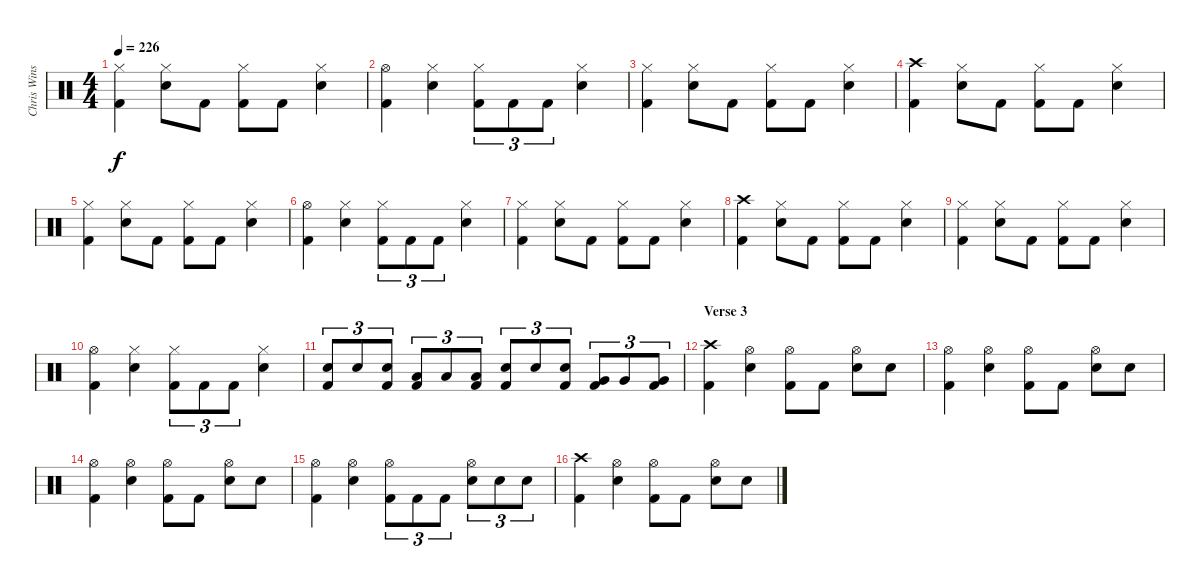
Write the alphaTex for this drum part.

\track ("Chris Winship (Drums)" "Chris Wins") {instrument percussion}
\staff {score}
\articulation defaults
\ts (4 4)
\tempo 226
\clef neutral
\ks c
("Hi-Hat (closed)" "Kick (hit) 2").4{dy f} ("Hi-Hat (closed)" "Electric Snare (hit)").8 "Kick (hit) 2".8 ("Hi-Hat (closed)" "Kick (hit) 2").8 "Kick (hit) 2".8 ("Hi-Hat (closed)" "Electric Snare (hit)").4 |
("Hi-Hat (open)" "Kick (hit) 2").4 ("Hi-Hat (closed)" "Electric Snare (hit)").4 ("Hi-Hat (closed)" "Kick (hit) 2").8{tu (3 2)} "Kick (hit) 2".8{tu (3 2)} "Kick (hit) 2".8{tu (3 2)} ("Hi-Hat (closed)" "Electric Snare (hit)").4 |
("Hi-Hat (closed)" "Kick (hit) 2").4 ("Hi-Hat (closed)" "Electric Snare (hit)").8 "Kick (hit) 2".8 ("Hi-Hat (closed)" "Kick (hit) 2").8 "Kick (hit) 2".8 ("Hi-Hat (closed)" "Electric Snare (hit)").4 |
("Crash high (hit)" "Kick (hit) 2").4 ("Hi-Hat (closed)" "Electric Snare (hit)").8 "Kick (hit) 2".8 ("Hi-Hat (closed)" "Kick (hit) 2").8 "Kick (hit) 2".8 ("Hi-Hat (closed)" "Electric Snare (hit)").4 |
("Hi-Hat (closed)" "Kick (hit) 2").4 ("Hi-Hat (closed)" "Electric Snare (hit)").8 "Kick (hit) 2".8 ("Hi-Hat (closed)" "Kick (hit) 2").8 "Kick (hit) 2".8 ("Hi-Hat (closed)" "Electric Snare (hit)").4 |
("Hi-Hat (open)" "Kick (hit) 2").4 ("Hi-Hat (closed)" "Electric Snare (hit)").4 ("Hi-Hat (closed)" "Kick (hit) 2").8{tu (3 2)} "Kick (hit) 2".8{tu (3 2)} "Kick (hit) 2".8{tu (3 2)} ("Hi-Hat (closed)" "Electric Snare (hit)").4 |
("Hi-Hat (closed)" "Kick (hit) 2").4 ("Hi-Hat (closed)" "Electric Snare (hit)").8 "Kick (hit) 2".8 ("Hi-Hat (closed)" "Kick (hit) 2").8 "Kick (hit) 2".8 ("Hi-Hat (closed)" "Electric Snare (hit)").4 |
("Crash high (hit)" "Kick (hit) 2").4 ("Hi-Hat (closed)" "Electric Snare (hit)").8 "Kick (hit) 2".8 ("Hi-Hat (closed)" "Kick (hit) 2").8 "Kick (hit) 2".8 ("Hi-Hat (closed)" "Electric Snare (hit)").4 |
("Hi-Hat (closed)" "Kick (hit) 2").4 ("Hi-Hat (closed)" "Electric Snare (hit)").8 "Kick (hit) 2".8 ("Hi-Hat (closed)" "Kick (hit) 2").8 "Kick (hit) 2".8 ("Hi-Hat (closed)" "Electric Snare (hit)").4 |
("Hi-Hat (open)" "Kick (hit) 2").4 ("Hi-Hat (closed)" "Electric Snare (hit)").4 ("Hi-Hat (closed)" "Kick (hit) 2").8{tu (3 2)} "Kick (hit) 2".8{tu (3 2)} "Kick (hit) 2".8{tu (3 2)} ("Hi-Hat (closed)" "Electric Snare (hit)").4 |
("Electric Snare (hit)" "Kick (hit) 2").8{tu (3 2)} "Electric Snare (hit)".8{tu (3 2)} ("Electric Snare (hit)" "Kick (hit) 2").8{tu (3 2)} ("Low Floor Tom (hit)" "Kick (hit) 2").8{tu (3 2)} "Low Floor Tom (hit)".8{tu (3 2)} ("Low Floor Tom (hit)" "Kick (hit) 2").8{tu (3 2)} ("Snare (hit) 2" "Kick (hit) 2").8{tu (3 2)} "Snare (hit) 2".8{tu (3 2)} ("Snare (hit) 2" "Kick (hit) 2").8{tu (3 2)} ("Very Low Tom (hit)" "Kick (hit) 2").8{tu (3 2)} "Very Low Tom (hit)".8{tu (3 2)} ("Very Low Tom (hit)" "Kick (hit) 2").8{tu (3 2)} |
\section ("" "Verse 3")
("Crash high (hit)" "Kick (hit) 2").4 ("Hi-Hat (open)" "Electric Snare (hit)").4 ("Hi-Hat (open)" "Kick (hit) 2").8 "Kick (hit) 2".8 ("Hi-Hat (open)" "Electric Snare (hit)").8 "Electric Snare (hit)".8 |
("Hi-Hat (open)" "Kick (hit) 2").4 ("Hi-Hat (open)" "Electric Snare (hit)").4 ("Hi-Hat (open)" "Kick (hit) 2").8 "Kick (hit) 2".8 ("Hi-Hat (open)" "Electric Snare (hit)").8 "Electric Snare (hit)".8 |
("Hi-Hat (open)" "Kick (hit) 2").4 ("Hi-Hat (open)" "Electric Snare (hit)").4 ("Hi-Hat (open)" "Kick (hit) 2").8 "Kick (hit) 2".8 ("Hi-Hat (open)" "Electric Snare (hit)").8 "Electric Snare (hit)".8 |
("Hi-Hat (open)" "Kick (hit) 2").4 ("Hi-Hat (open)" "Electric Snare (hit)").4 ("Hi-Hat (open)" "Kick (hit) 2").8{tu (3 2)} "Kick (hit) 2".8{tu (3 2)} "Kick (hit) 2".8{tu (3 2)} ("Hi-Hat (open)" "Electric Snare (hit)").8{tu (3 2)} "Electric Snare (hit)".8{tu (3 2)} "Electric Snare (hit)".8{tu (3 2)} |
("Crash high (hit)" "Kick (hit) 2").4 ("Hi-Hat (open)" "Electric Snare (hit)").4 ("Hi-Hat (open)" "Kick (hit) 2").8 "Kick (hit) 2".8 ("Hi-Hat (open)" "Electric Snare (hit)").8 "Electric Snare (hit)".8
